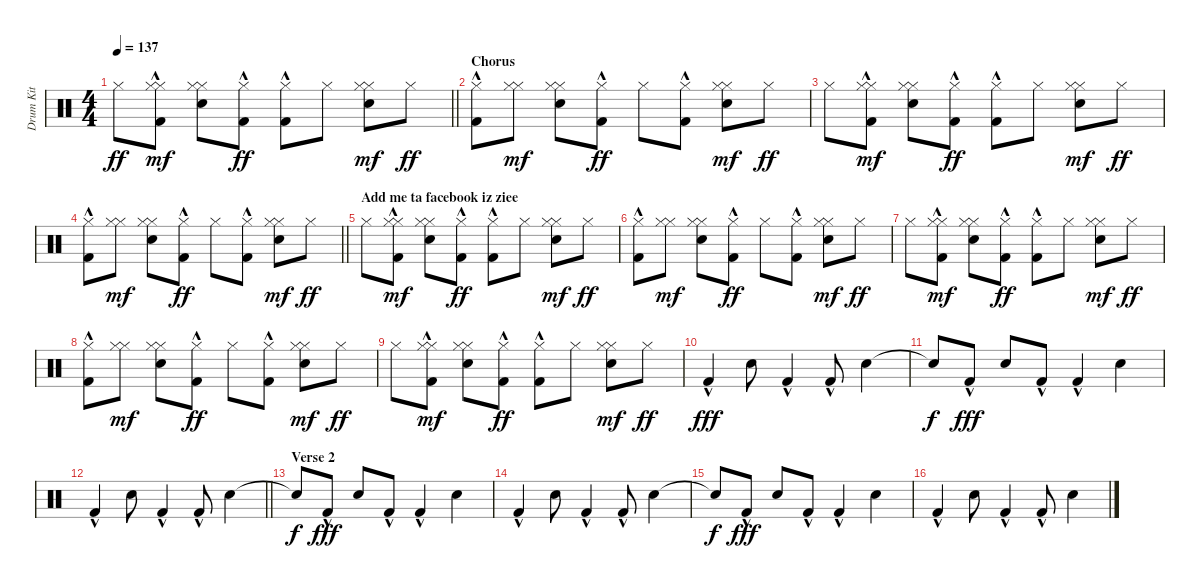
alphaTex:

\track ("Drum Kit" "Drum Kit") {instrument percussion}
\staff {score}
\articulation defaults
\ts (4 4)
\tempo 137
\clef neutral
\barLineRight lightlight
\ks c "Hi-Hat (closed)".8{dy ff}
("Kick (hit) 2"{hac} "Hi-Hat (closed)" "Hi-Hat (closed)").8{dy mf} ("Hand Clap (hit)" "Hi-Hat (closed)" "Hi-Hat (closed)").8 ("Kick (hit) 2"{hac} "Hi-Hat (closed)").8{dy ff} ("Kick (hit) 2"{hac} "Hi-Hat (closed)").8 "Hi-Hat (closed)".8 ("Hand Clap (hit)" "Hi-Hat (closed)" "Hi-Hat (closed)").8{dy mf} "Hi-Hat (closed)".8{dy ff} |
\section ("" "Chorus")
("Kick (hit) 2"{hac} "Hi-Hat (closed)").8 ("Hi-Hat (closed)" "Hi-Hat (closed)").8{dy mf} ("Hand Clap (hit)" "Hi-Hat (closed)" "Hi-Hat (closed)").8 ("Kick (hit) 2"{hac} "Hi-Hat (closed)").8{dy ff} "Hi-Hat (closed)".8 ("Kick (hit) 2"{hac} "Hi-Hat (closed)").8 ("Hand Clap (hit)" "Hi-Hat (closed)" "Hi-Hat (closed)").8{dy mf} "Hi-Hat (closed)".8{dy ff} |
"Hi-Hat (closed)".8 ("Kick (hit) 2"{hac} "Hi-Hat (closed)" "Hi-Hat (closed)").8{dy mf} ("Hand Clap (hit)" "Hi-Hat (closed)" "Hi-Hat (closed)").8 ("Kick (hit) 2"{hac} "Hi-Hat (closed)").8{dy ff} ("Kick (hit) 2"{hac} "Hi-Hat (closed)").8 "Hi-Hat (closed)".8 ("Hand Clap (hit)" "Hi-Hat (closed)" "Hi-Hat (closed)").8{dy mf} "Hi-Hat (closed)".8{dy ff} |
\barLineRight lightlight
("Kick (hit) 2"{hac} "Hi-Hat (closed)").8 ("Hi-Hat (closed)" "Hi-Hat (closed)").8{dy mf} ("Hand Clap (hit)" "Hi-Hat (closed)" "Hi-Hat (closed)").8 ("Kick (hit) 2"{hac} "Hi-Hat (closed)").8{dy ff} "Hi-Hat (closed)".8 ("Kick (hit) 2"{hac} "Hi-Hat (closed)").8 ("Hand Clap (hit)" "Hi-Hat (closed)" "Hi-Hat (closed)").8{dy mf} "Hi-Hat (closed)".8{dy ff} |
\section ("" "Add me ta facebook iz ziee")
"Hi-Hat (closed)".8 ("Kick (hit) 2"{hac} "Hi-Hat (closed)" "Hi-Hat (closed)").8{dy mf} ("Hand Clap (hit)" "Hi-Hat (closed)" "Hi-Hat (closed)").8 ("Kick (hit) 2"{hac} "Hi-Hat (closed)").8{dy ff} ("Kick (hit) 2"{hac} "Hi-Hat (closed)").8 "Hi-Hat (closed)".8 ("Hand Clap (hit)" "Hi-Hat (closed)" "Hi-Hat (closed)").8{dy mf} "Hi-Hat (closed)".8{dy ff} |
("Kick (hit) 2"{hac} "Hi-Hat (closed)").8 ("Hi-Hat (closed)" "Hi-Hat (closed)").8{dy mf} ("Hand Clap (hit)" "Hi-Hat (closed)" "Hi-Hat (closed)").8 ("Kick (hit) 2"{hac} "Hi-Hat (closed)").8{dy ff} "Hi-Hat (closed)".8 ("Kick (hit) 2"{hac} "Hi-Hat (closed)").8 ("Hand Clap (hit)" "Hi-Hat (closed)" "Hi-Hat (closed)").8{dy mf} "Hi-Hat (closed)".8{dy ff} |
"Hi-Hat (closed)".8 ("Kick (hit) 2"{hac} "Hi-Hat (closed)" "Hi-Hat (closed)").8{dy mf} ("Hand Clap (hit)" "Hi-Hat (closed)" "Hi-Hat (closed)").8 ("Kick (hit) 2"{hac} "Hi-Hat (closed)").8{dy ff} ("Kick (hit) 2"{hac} "Hi-Hat (closed)").8 "Hi-Hat (closed)".8 ("Hand Clap (hit)" "Hi-Hat (closed)" "Hi-Hat (closed)").8{dy mf} "Hi-Hat (closed)".8{dy ff} |
("Kick (hit) 2"{hac} "Hi-Hat (closed)").8 ("Hi-Hat (closed)" "Hi-Hat (closed)").8{dy mf} ("Hand Clap (hit)" "Hi-Hat (closed)" "Hi-Hat (closed)").8 ("Kick (hit) 2"{hac} "Hi-Hat (closed)").8{dy ff} "Hi-Hat (closed)".8 ("Kick (hit) 2"{hac} "Hi-Hat (closed)").8 ("Hand Clap (hit)" "Hi-Hat (closed)" "Hi-Hat (closed)").8{dy mf} "Hi-Hat (closed)".8{dy ff} |
"Hi-Hat (closed)".8 ("Kick (hit) 2"{hac} "Hi-Hat (closed)" "Hi-Hat (closed)").8{dy mf} ("Hand Clap (hit)" "Hi-Hat (closed)" "Hi-Hat (closed)").8 ("Kick (hit) 2"{hac} "Hi-Hat (closed)").8{dy ff} ("Kick (hit) 2"{hac} "Hi-Hat (closed)").8 "Hi-Hat (closed)".8 ("Hand Clap (hit)" "Hi-Hat (closed)" "Hi-Hat (closed)").8{dy mf} "Hi-Hat (closed)".8{dy ff} |
"Kick (hit) 2"{hac}.4{dy fff} "Hand Clap (hit)".8 "Kick (hit) 2"{hac}.4 "Kick (hit) 2"{hac}.8 "Hand Clap (hit)".4 |
"Snare (hit)"{t}.8{dy f} "Kick (hit) 2"{hac}.8{dy fff} "Hand Clap (hit)".8 "Kick (hit) 2"{hac}.8 "Kick (hit) 2"{hac}.4 "Hand Clap (hit)".4 |
\barLineRight lightlight "Kick (hit) 2"{hac}.4 "Hand Clap (hit)".8 "Kick (hit) 2"{hac}.4 "Kick (hit) 2"{hac}.8 "Hand Clap (hit)".4
|
\section ("" "Verse 2")
"Snare (hit)"{t}.8{dy f} "Kick (hit) 2"{hac}.8{dy fff} "Hand Clap (hit)".8 "Kick (hit) 2"{hac}.8 "Kick (hit) 2"{hac}.4 "Hand Clap (hit)".4 |
"Kick (hit) 2"{hac}.4 "Hand Clap (hit)".8 "Kick (hit) 2"{hac}.4 "Kick (hit) 2"{hac}.8 "Hand Clap (hit)".4 |
"Snare (hit)"{t}.8{dy f} "Kick (hit) 2"{hac}.8{dy fff} "Hand Clap (hit)".8 "Kick (hit) 2"{hac}.8 "Kick (hit) 2"{hac}.4 "Hand Clap (hit)".4 |
"Kick (hit) 2"{hac}.4 "Hand Clap (hit)".8 "Kick (hit) 2"{hac}.4 "Kick (hit) 2"{hac}.8 "Hand Clap (hit)".4
